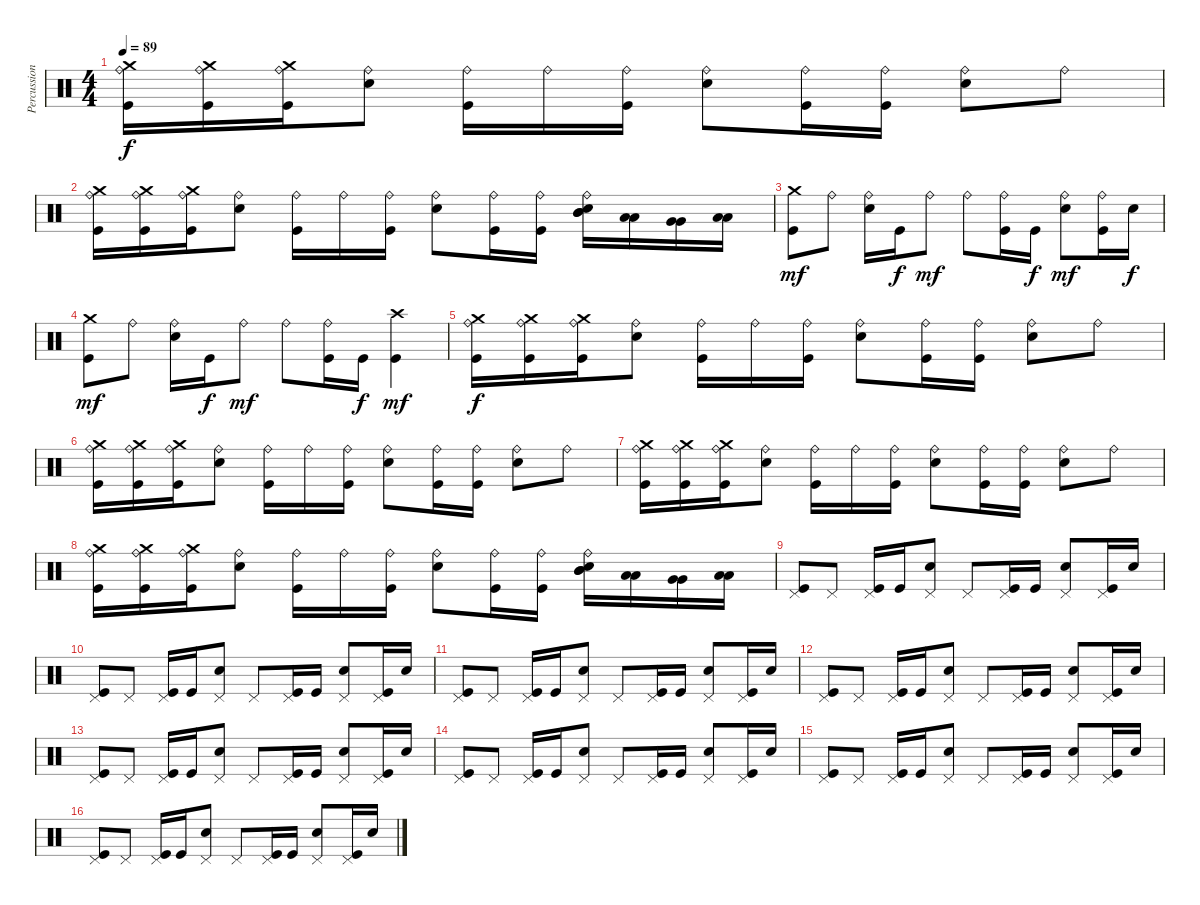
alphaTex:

\track ("Percussion" "Percussion") {instrument percussion}
\staff {score}
\articulation defaults
\ts (4 4)
\tempo 89
\clef neutral
\ks c
("Ride (bell)" "Crash medium (hit)" "Kick (hit)").16{dy f} ("Ride (bell)" "Crash medium (hit)" "Kick (hit)").16 ("Ride (bell)" "Crash medium (hit)" "Kick (hit)").16 ("Ride (bell)" "Snare (hit) 2").8 ("Ride (bell)" "Kick (hit)").16 "Ride (bell)".16 ("Ride (bell)" "Kick (hit)").16 ("Ride (bell)" "Snare (hit) 2").8 ("Ride (bell)" "Kick (hit)").16 ("Ride (bell)" "Kick (hit)").16 ("Ride (bell)" "Snare (hit) 2").8 "Ride (bell)".8 |
("Ride (bell)" "Crash medium (hit)" "Kick (hit)").16 ("Ride (bell)" "Crash medium (hit)" "Kick (hit)").16 ("Ride (bell)" "Crash medium (hit)" "Kick (hit)").16 ("Ride (bell)" "Snare (hit) 2").8 ("Ride (bell)" "Kick (hit)").16 "Ride (bell)".16 ("Ride (bell)" "Kick (hit)").16 ("Ride (bell)" "Snare (hit) 2").8 ("Ride (bell)" "Kick (hit)").16 ("Ride (bell)" "Kick (hit)").16 ("Ride (bell)" "Snare (hit) 2" "Mid Tom (hit)" "Mid Tom (hit)").16 ("Low Tom (hit)" "Low Tom (hit)").16 ("Very Low Tom (hit)" "Very Low Tom (hit)").16 ("Low Floor Tom (hit)" "Low Floor Tom (hit)").16 |
("Crash medium (hit)" "Kick (hit)").8{dy mf} "Ride (bell)".8 ("Ride (bell)" "Snare (hit) 2").16 "Kick (hit)".16{dy f} "Ride (bell)".8{dy mf} "Ride (bell)".8 ("Ride (bell)" "Kick (hit)").16 "Kick (hit)".16{dy f} ("Ride (bell)" "Snare (hit) 2").8{dy mf} ("Ride (bell)" "Kick (hit)").16 "Snare (hit) 2".16{dy f} |
("Crash medium (hit)" "Kick (hit)").8{dy mf} "Ride (bell)".8 ("Ride (bell)" "Snare (hit) 2").16 "Kick (hit)".16{dy f} "Ride (bell)".8{dy mf} "Ride (bell)".8 ("Ride (bell)" "Kick (hit)").16 "Kick (hit)".16{dy f} ("Crash high (hit)" "Kick (hit)").4{dy mf} |
("Ride (bell)" "Crash medium (hit)" "Kick (hit)").16{dy f} ("Ride (bell)" "Crash medium (hit)" "Kick (hit)").16 ("Ride (bell)" "Crash medium (hit)" "Kick (hit)").16 ("Ride (bell)" "Snare (hit) 2").8 ("Ride (bell)" "Kick (hit)").16 "Ride (bell)".16 ("Ride (bell)" "Kick (hit)").16 ("Ride (bell)" "Snare (hit) 2").8 ("Ride (bell)" "Kick (hit)").16 ("Ride (bell)" "Kick (hit)").16 ("Ride (bell)" "Snare (hit) 2").8 "Ride (bell)".8 |
("Ride (bell)" "Crash medium (hit)" "Kick (hit)").16 ("Ride (bell)" "Crash medium (hit)" "Kick (hit)").16 ("Ride (bell)" "Crash medium (hit)" "Kick (hit)").16 ("Ride (bell)" "Snare (hit) 2").8 ("Ride (bell)" "Kick (hit)").16 "Ride (bell)".16 ("Ride (bell)" "Kick (hit)").16 ("Ride (bell)" "Snare (hit) 2").8 ("Ride (bell)" "Kick (hit)").16 ("Ride (bell)" "Kick (hit)").16 ("Ride (bell)" "Snare (hit) 2").8 "Ride (bell)".8 |
("Ride (bell)" "Crash medium (hit)" "Kick (hit)").16 ("Ride (bell)" "Crash medium (hit)" "Kick (hit)").16 ("Ride (bell)" "Crash medium (hit)" "Kick (hit)").16 ("Ride (bell)" "Snare (hit) 2").8 ("Ride (bell)" "Kick (hit)").16 "Ride (bell)".16 ("Ride (bell)" "Kick (hit)").16 ("Ride (bell)" "Snare (hit) 2").8 ("Ride (bell)" "Kick (hit)").16 ("Ride (bell)" "Kick (hit)").16 ("Ride (bell)" "Snare (hit) 2").8 "Ride (bell)".8 |
("Ride (bell)" "Crash medium (hit)" "Kick (hit)").16 ("Ride (bell)" "Crash medium (hit)" "Kick (hit)").16 ("Ride (bell)" "Crash medium (hit)" "Kick (hit)").16 ("Ride (bell)" "Snare (hit) 2").8 ("Ride (bell)" "Kick (hit)").16 "Ride (bell)".16 ("Ride (bell)" "Kick (hit)").16 ("Ride (bell)" "Snare (hit) 2").8 ("Ride (bell)" "Kick (hit)").16 ("Ride (bell)" "Kick (hit)").16 ("Ride (bell)" "Snare (hit) 2" "Mid Tom (hit)" "Mid Tom (hit)").16 ("Low Tom (hit)" "Low Tom (hit)").16 ("Very Low Tom (hit)" "Very Low Tom (hit)").16 ("Low Floor Tom (hit)" "Low Floor Tom (hit)").16 |
("Pedal Hi-Hat (hit)" "Kick (hit)").8 "Pedal Hi-Hat (hit)".8 ("Pedal Hi-Hat (hit)" "Kick (hit)").16 "Kick (hit)".16 ("Pedal Hi-Hat (hit)" "Snare (hit) 2").8 "Pedal Hi-Hat (hit)".8 ("Pedal Hi-Hat (hit)" "Kick (hit)").16 "Kick (hit)".16 ("Pedal Hi-Hat (hit)" "Snare (hit) 2").8 ("Pedal Hi-Hat (hit)" "Kick (hit)").16 "Snare (hit) 2".16 |
("Pedal Hi-Hat (hit)" "Kick (hit)").8 "Pedal Hi-Hat (hit)".8 ("Pedal Hi-Hat (hit)" "Kick (hit)").16 "Kick (hit)".16 ("Pedal Hi-Hat (hit)" "Snare (hit) 2").8 "Pedal Hi-Hat (hit)".8 ("Pedal Hi-Hat (hit)" "Kick (hit)").16 "Kick (hit)".16 ("Pedal Hi-Hat (hit)" "Snare (hit) 2").8 ("Pedal Hi-Hat (hit)" "Kick (hit)").16 "Snare (hit) 2".16 |
("Pedal Hi-Hat (hit)" "Kick (hit)").8 "Pedal Hi-Hat (hit)".8 ("Pedal Hi-Hat (hit)" "Kick (hit)").16 "Kick (hit)".16 ("Pedal Hi-Hat (hit)" "Snare (hit) 2").8 "Pedal Hi-Hat (hit)".8 ("Pedal Hi-Hat (hit)" "Kick (hit)").16 "Kick (hit)".16 ("Pedal Hi-Hat (hit)" "Snare (hit) 2").8 ("Pedal Hi-Hat (hit)" "Kick (hit)").16 "Snare (hit) 2".16 |
("Pedal Hi-Hat (hit)" "Kick (hit)").8 "Pedal Hi-Hat (hit)".8 ("Pedal Hi-Hat (hit)" "Kick (hit)").16 "Kick (hit)".16 ("Pedal Hi-Hat (hit)" "Snare (hit) 2").8 "Pedal Hi-Hat (hit)".8 ("Pedal Hi-Hat (hit)" "Kick (hit)").16 "Kick (hit)".16 ("Pedal Hi-Hat (hit)" "Snare (hit) 2").8 ("Pedal Hi-Hat (hit)" "Kick (hit)").16 "Snare (hit) 2".16 |
("Pedal Hi-Hat (hit)" "Kick (hit)").8 "Pedal Hi-Hat (hit)".8 ("Pedal Hi-Hat (hit)" "Kick (hit)").16 "Kick (hit)".16 ("Pedal Hi-Hat (hit)" "Snare (hit) 2").8 "Pedal Hi-Hat (hit)".8 ("Pedal Hi-Hat (hit)" "Kick (hit)").16 "Kick (hit)".16 ("Pedal Hi-Hat (hit)" "Snare (hit) 2").8 ("Pedal Hi-Hat (hit)" "Kick (hit)").16 "Snare (hit) 2".16 |
("Pedal Hi-Hat (hit)" "Kick (hit)").8 "Pedal Hi-Hat (hit)".8 ("Pedal Hi-Hat (hit)" "Kick (hit)").16 "Kick (hit)".16 ("Pedal Hi-Hat (hit)" "Snare (hit) 2").8 "Pedal Hi-Hat (hit)".8 ("Pedal Hi-Hat (hit)" "Kick (hit)").16 "Kick (hit)".16 ("Pedal Hi-Hat (hit)" "Snare (hit) 2").8 ("Pedal Hi-Hat (hit)" "Kick (hit)").16 "Snare (hit) 2".16 |
("Pedal Hi-Hat (hit)" "Kick (hit)").8 "Pedal Hi-Hat (hit)".8 ("Pedal Hi-Hat (hit)" "Kick (hit)").16 "Kick (hit)".16 ("Pedal Hi-Hat (hit)" "Snare (hit) 2").8 "Pedal Hi-Hat (hit)".8 ("Pedal Hi-Hat (hit)" "Kick (hit)").16 "Kick (hit)".16 ("Pedal Hi-Hat (hit)" "Snare (hit) 2").8 ("Pedal Hi-Hat (hit)" "Kick (hit)").16 "Snare (hit) 2".16 |
("Pedal Hi-Hat (hit)" "Kick (hit)").8 "Pedal Hi-Hat (hit)".8 ("Pedal Hi-Hat (hit)" "Kick (hit)").16 "Kick (hit)".16 ("Pedal Hi-Hat (hit)" "Snare (hit) 2").8 "Pedal Hi-Hat (hit)".8 ("Pedal Hi-Hat (hit)" "Kick (hit)").16 "Kick (hit)".16 ("Pedal Hi-Hat (hit)" "Snare (hit) 2").8 ("Pedal Hi-Hat (hit)" "Kick (hit)").16 "Snare (hit) 2".16
